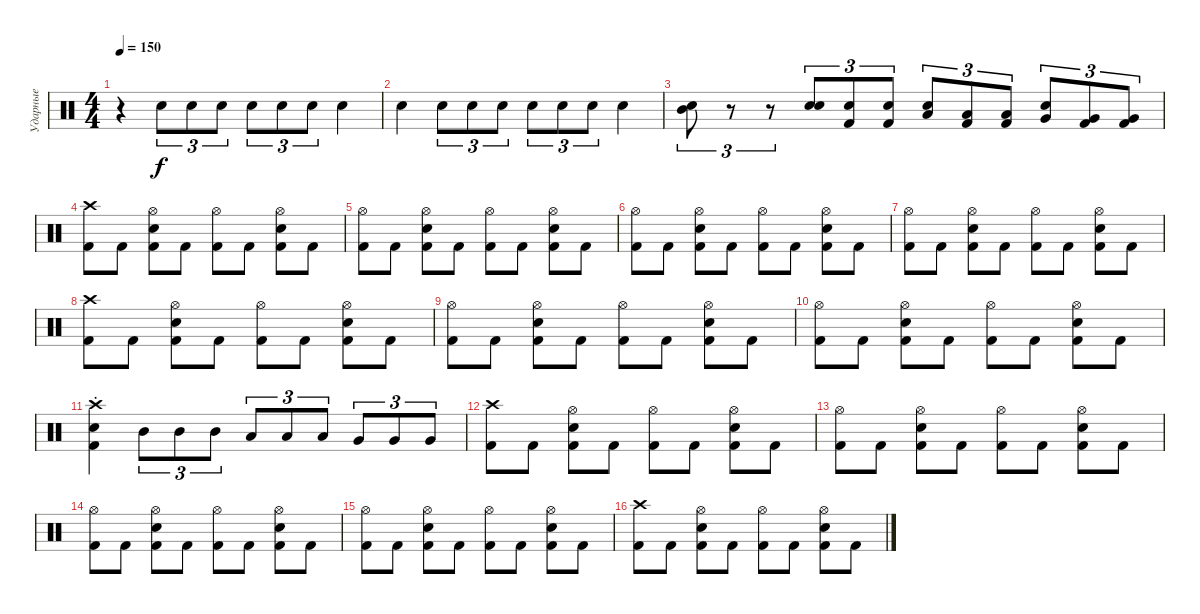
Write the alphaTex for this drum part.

\track ("Ударные" "Ударные") {instrument percussion}
\staff {score}
\articulation defaults
\ts (4 4)
\tempo 150
\clef neutral
\ks c
r.4{dy f} "Snare (hit) 2".8{tu (3 2)} "Snare (hit) 2".8{tu (3 2)} "Snare (hit) 2".8{tu (3 2)} "Snare (hit) 2".8{tu (3 2)} "Snare (hit) 2".8{tu (3 2)} "Snare (hit) 2".8{tu (3 2)} "Snare (hit) 2".4 |
"Snare (hit) 2".4 "Snare (hit) 2".8{tu (3 2)} "Snare (hit) 2".8{tu (3 2)} "Snare (hit) 2".8{tu (3 2)} "Snare (hit) 2".8{tu (3 2)} "Snare (hit) 2".8{tu (3 2)} "Snare (hit) 2".8{tu (3 2)} "Snare (hit) 2".4 |
("Mid Tom (hit)" "Snare (hit) 2").8{tu (3 2)} r.8{tu (3 2)} r.8{tu (3 2)} ("Electric Snare (hit)" "Snare (hit) 2").8{tu (3 2)} ("Electric Snare (hit)" "Kick (hit) 2").8{tu (3 2)} ("Electric Snare (hit)" "Kick (hit) 2").8{tu (3 2)} ("Low Tom (hit)" "Snare (hit) 2").8{tu (3 2)} ("Low Tom (hit)" "Kick (hit) 2").8{tu (3 2)} ("Low Tom (hit)" "Kick (hit) 2").8{tu (3 2)} ("Very Low Tom (hit)" "Snare (hit) 2").8{tu (3 2)} ("Very Low Tom (hit)" "Kick (hit) 2").8{tu (3 2)} ("Very Low Tom (hit)" "Kick (hit) 2").8{tu (3 2)} |
("Kick (hit) 2" "Crash high (hit)").8 "Kick (hit) 2".8 ("Snare (hit) 2" "Kick (hit) 2" "Hi-Hat (open)").8 "Kick (hit) 2".8 ("Kick (hit) 2" "Hi-Hat (open)").8 "Kick (hit) 2".8 ("Snare (hit) 2" "Kick (hit) 2" "Hi-Hat (open)").8 "Kick (hit) 2".8 |
("Kick (hit) 2" "Hi-Hat (open)").8 "Kick (hit) 2".8 ("Snare (hit) 2" "Kick (hit) 2" "Hi-Hat (open)").8 "Kick (hit) 2".8 ("Kick (hit) 2" "Hi-Hat (open)").8 "Kick (hit) 2".8 ("Snare (hit) 2" "Kick (hit) 2" "Hi-Hat (open)").8 "Kick (hit) 2".8 |
("Kick (hit) 2" "Hi-Hat (open)").8 "Kick (hit) 2".8 ("Snare (hit) 2" "Kick (hit) 2" "Hi-Hat (open)").8 "Kick (hit) 2".8 ("Kick (hit) 2" "Hi-Hat (open)").8 "Kick (hit) 2".8 ("Snare (hit) 2" "Kick (hit) 2" "Hi-Hat (open)").8 "Kick (hit) 2".8 |
("Kick (hit) 2" "Hi-Hat (open)").8 "Kick (hit) 2".8 ("Snare (hit) 2" "Kick (hit) 2" "Hi-Hat (open)").8 "Kick (hit) 2".8 ("Kick (hit) 2" "Hi-Hat (open)").8 "Kick (hit) 2".8 ("Snare (hit) 2" "Kick (hit) 2" "Hi-Hat (open)").8 "Kick (hit) 2".8 |
("Kick (hit) 2" "Crash high (hit)").8 "Kick (hit) 2".8 ("Snare (hit) 2" "Kick (hit) 2" "Hi-Hat (open)").8 "Kick (hit) 2".8 ("Kick (hit) 2" "Hi-Hat (open)").8 "Kick (hit) 2".8 ("Snare (hit) 2" "Kick (hit) 2" "Hi-Hat (open)").8 "Kick (hit) 2".8 |
("Kick (hit) 2" "Hi-Hat (open)").8 "Kick (hit) 2".8 ("Snare (hit) 2" "Kick (hit) 2" "Hi-Hat (open)").8 "Kick (hit) 2".8 ("Kick (hit) 2" "Hi-Hat (open)").8 "Kick (hit) 2".8 ("Snare (hit) 2" "Kick (hit) 2" "Hi-Hat (open)").8 "Kick (hit) 2".8 |
("Kick (hit) 2" "Hi-Hat (open)").8 "Kick (hit) 2".8 ("Snare (hit) 2" "Kick (hit) 2" "Hi-Hat (open)").8 "Kick (hit) 2".8 ("Kick (hit) 2" "Hi-Hat (open)").8 "Kick (hit) 2".8 ("Snare (hit) 2" "Kick (hit) 2" "Hi-Hat (open)").8 "Kick (hit) 2".8 |
("Kick (hit) 2"{st} "Snare (hit) 2"{st} "Crash high (hit)"{st}).4 "Mid Tom (hit)".8{tu (3 2)} "Mid Tom (hit)".8{tu (3 2)} "Mid Tom (hit)".8{tu (3 2)} "Low Tom (hit)".8{tu (3 2)} "Low Tom (hit)".8{tu (3 2)} "Low Tom (hit)".8{tu (3 2)} "Very Low Tom (hit)".8{tu (3 2)} "Very Low Tom (hit)".8{tu (3 2)} "Very Low Tom (hit)".8{tu (3 2)} |
("Kick (hit) 2" "Crash high (hit)").8 "Kick (hit) 2".8 ("Snare (hit) 2" "Kick (hit) 2" "Hi-Hat (open)").8 "Kick (hit) 2".8 ("Kick (hit) 2" "Hi-Hat (open)").8 "Kick (hit) 2".8 ("Snare (hit) 2" "Kick (hit) 2" "Hi-Hat (open)").8 "Kick (hit) 2".8 |
("Kick (hit) 2" "Hi-Hat (open)").8 "Kick (hit) 2".8 ("Snare (hit) 2" "Kick (hit) 2" "Hi-Hat (open)").8 "Kick (hit) 2".8 ("Kick (hit) 2" "Hi-Hat (open)").8 "Kick (hit) 2".8 ("Snare (hit) 2" "Kick (hit) 2" "Hi-Hat (open)").8 "Kick (hit) 2".8 |
("Kick (hit) 2" "Hi-Hat (open)").8 "Kick (hit) 2".8 ("Snare (hit) 2" "Kick (hit) 2" "Hi-Hat (open)").8 "Kick (hit) 2".8 ("Kick (hit) 2" "Hi-Hat (open)").8 "Kick (hit) 2".8 ("Snare (hit) 2" "Kick (hit) 2" "Hi-Hat (open)").8 "Kick (hit) 2".8 |
("Kick (hit) 2" "Hi-Hat (open)").8 "Kick (hit) 2".8 ("Snare (hit) 2" "Kick (hit) 2" "Hi-Hat (open)").8 "Kick (hit) 2".8 ("Kick (hit) 2" "Hi-Hat (open)").8 "Kick (hit) 2".8 ("Snare (hit) 2" "Kick (hit) 2" "Hi-Hat (open)").8 "Kick (hit) 2".8 |
("Kick (hit) 2" "Crash high (hit)").8 "Kick (hit) 2".8 ("Snare (hit) 2" "Kick (hit) 2" "Hi-Hat (open)").8 "Kick (hit) 2".8 ("Kick (hit) 2" "Hi-Hat (open)").8 "Kick (hit) 2".8 ("Snare (hit) 2" "Kick (hit) 2" "Hi-Hat (open)").8 "Kick (hit) 2".8
